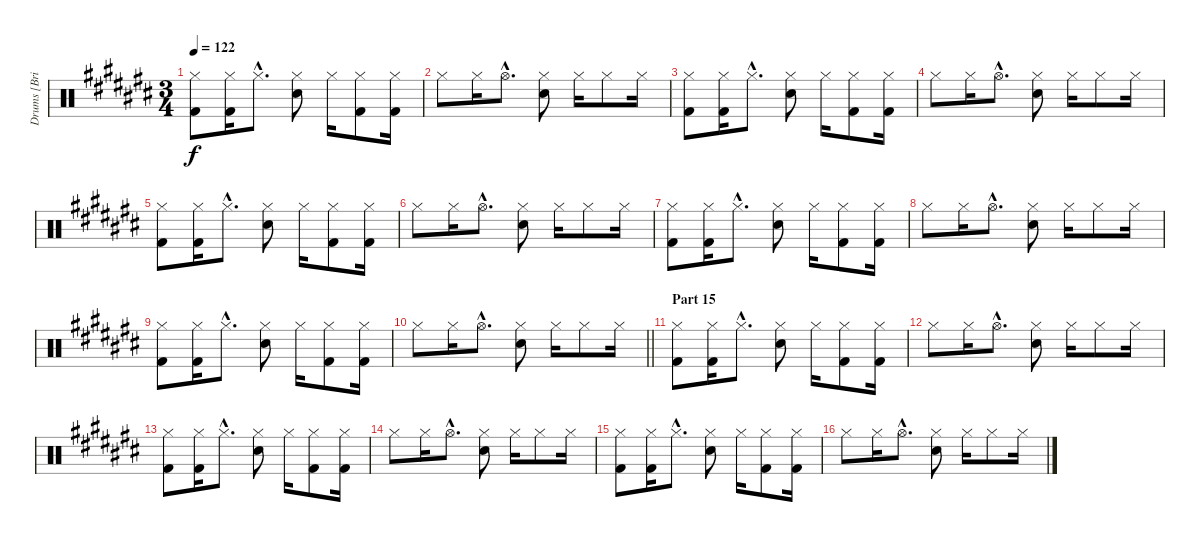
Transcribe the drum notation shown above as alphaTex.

\track ("Drums [Brian \"Brain\" Mantia]" "Drums [Bri") {instrument percussion}
\staff {score}
\articulation defaults
\ts (3 4)
\tempo 122
\clef neutral
\ks c#
("Hi-Hat (closed)" "Kick (hit) 2").8{dy f} ("Hi-Hat (closed)" "Kick (hit) 2").16 "Hi-Hat (closed)"{hac}.8{d} ("Hi-Hat (closed)" "Electric Snare (hit)").8 "Hi-Hat (closed)".16 ("Hi-Hat (closed)" "Kick (hit) 2").8 ("Hi-Hat (closed)" "Kick (hit) 2").16 |
"Hi-Hat (closed)".8 "Hi-Hat (closed)".16 "Hi-Hat (open)"{hac}.8{d} ("Hi-Hat (closed)" "Electric Snare (hit)").8 "Hi-Hat (closed)".16 "Hi-Hat (closed)".8 "Hi-Hat (closed)".16 |
("Hi-Hat (closed)" "Kick (hit) 2").8 ("Hi-Hat (closed)" "Kick (hit) 2").16 "Hi-Hat (closed)"{hac}.8{d} ("Hi-Hat (closed)" "Electric Snare (hit)").8 "Hi-Hat (closed)".16 ("Hi-Hat (closed)" "Kick (hit) 2").8 ("Hi-Hat (closed)" "Kick (hit) 2").16 |
"Hi-Hat (closed)".8 "Hi-Hat (closed)".16 "Hi-Hat (open)"{hac}.8{d} ("Hi-Hat (closed)" "Electric Snare (hit)").8 "Hi-Hat (closed)".16 "Hi-Hat (closed)".8 "Hi-Hat (closed)".16 |
("Hi-Hat (closed)" "Kick (hit) 2").8 ("Hi-Hat (closed)" "Kick (hit) 2").16 "Hi-Hat (closed)"{hac}.8{d} ("Hi-Hat (closed)" "Electric Snare (hit)").8 "Hi-Hat (closed)".16 ("Hi-Hat (closed)" "Kick (hit) 2").8 ("Hi-Hat (closed)" "Kick (hit) 2").16 |
"Hi-Hat (closed)".8 "Hi-Hat (closed)".16 "Hi-Hat (open)"{hac}.8{d} ("Hi-Hat (closed)" "Electric Snare (hit)").8 "Hi-Hat (closed)".16 "Hi-Hat (closed)".8 "Hi-Hat (closed)".16 |
("Hi-Hat (closed)" "Kick (hit) 2").8 ("Hi-Hat (closed)" "Kick (hit) 2").16 "Hi-Hat (closed)"{hac}.8{d} ("Hi-Hat (closed)" "Electric Snare (hit)").8 "Hi-Hat (closed)".16 ("Hi-Hat (closed)" "Kick (hit) 2").8 ("Hi-Hat (closed)" "Kick (hit) 2").16 |
"Hi-Hat (closed)".8 "Hi-Hat (closed)".16 "Hi-Hat (open)"{hac}.8{d} ("Hi-Hat (closed)" "Electric Snare (hit)").8 "Hi-Hat (closed)".16 "Hi-Hat (closed)".8 "Hi-Hat (closed)".16 |
("Hi-Hat (closed)" "Kick (hit) 2").8 ("Hi-Hat (closed)" "Kick (hit) 2").16 "Hi-Hat (closed)"{hac}.8{d} ("Hi-Hat (closed)" "Electric Snare (hit)").8 "Hi-Hat (closed)".16 ("Hi-Hat (closed)" "Kick (hit) 2").8 ("Hi-Hat (closed)" "Kick (hit) 2").16 |
\barLineRight lightlight "Hi-Hat (closed)".8 "Hi-Hat (closed)".16 "Hi-Hat (open)"{hac}.8{d}
("Hi-Hat (closed)" "Electric Snare (hit)").8 "Hi-Hat (closed)".16 "Hi-Hat (closed)".8 "Hi-Hat (closed)".16 |
\section ("" "Part 15")
("Hi-Hat (closed)" "Kick (hit) 2").8 ("Hi-Hat (closed)" "Kick (hit) 2").16 "Hi-Hat (closed)"{hac}.8{d} ("Hi-Hat (closed)" "Electric Snare (hit)").8 "Hi-Hat (closed)".16 ("Hi-Hat (closed)" "Kick (hit) 2").8 ("Hi-Hat (closed)" "Kick (hit) 2").16 |
"Hi-Hat (closed)".8 "Hi-Hat (closed)".16 "Hi-Hat (open)"{hac}.8{d} ("Hi-Hat (closed)" "Electric Snare (hit)").8 "Hi-Hat (closed)".16 "Hi-Hat (closed)".8 "Hi-Hat (closed)".16 |
("Hi-Hat (closed)" "Kick (hit) 2").8 ("Hi-Hat (closed)" "Kick (hit) 2").16 "Hi-Hat (closed)"{hac}.8{d} ("Hi-Hat (closed)" "Electric Snare (hit)").8 "Hi-Hat (closed)".16 ("Hi-Hat (closed)" "Kick (hit) 2").8 ("Hi-Hat (closed)" "Kick (hit) 2").16 |
"Hi-Hat (closed)".8 "Hi-Hat (closed)".16 "Hi-Hat (open)"{hac}.8{d} ("Hi-Hat (closed)" "Electric Snare (hit)").8 "Hi-Hat (closed)".16 "Hi-Hat (closed)".8 "Hi-Hat (closed)".16 |
("Hi-Hat (closed)" "Kick (hit) 2").8 ("Hi-Hat (closed)" "Kick (hit) 2").16 "Hi-Hat (closed)"{hac}.8{d} ("Hi-Hat (closed)" "Electric Snare (hit)").8 "Hi-Hat (closed)".16 ("Hi-Hat (closed)" "Kick (hit) 2").8 ("Hi-Hat (closed)" "Kick (hit) 2").16 |
"Hi-Hat (closed)".8 "Hi-Hat (closed)".16 "Hi-Hat (open)"{hac}.8{d} ("Hi-Hat (closed)" "Electric Snare (hit)").8 "Hi-Hat (closed)".16 "Hi-Hat (closed)".8 "Hi-Hat (closed)".16
